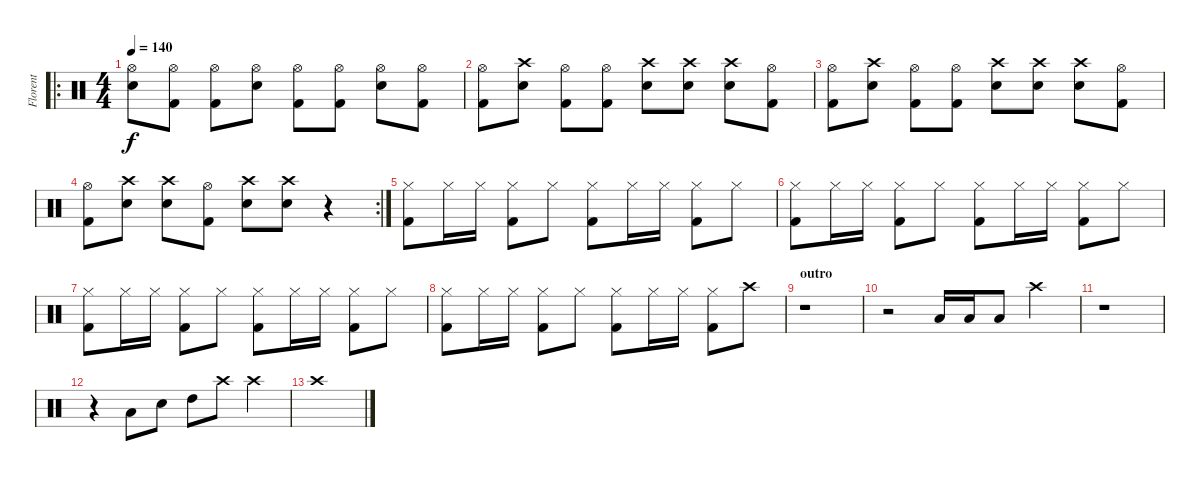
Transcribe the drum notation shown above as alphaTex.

\track ("Florent" "Florent") {instrument percussion}
\staff {score}
\articulation defaults
\ro
\ts (4 4)
\tempo 140
\clef neutral
\ks c
("Hi-Hat (open)" "Snare (hit) 2").8{dy f} ("Hi-Hat (open)" "Kick (hit) 2").8 ("Hi-Hat (open)" "Kick (hit) 2").8 ("Hi-Hat (open)" "Snare (hit) 2").8 ("Hi-Hat (open)" "Kick (hit) 2").8 ("Hi-Hat (open)" "Kick (hit) 2").8 ("Hi-Hat (open)" "Snare (hit) 2").8 ("Hi-Hat (open)" "Kick (hit) 2").8 |
("Hi-Hat (open)" "Kick (hit) 2").8 ("Crash high (hit)" "Snare (hit) 2").8 ("Hi-Hat (open)" "Kick (hit) 2").8 ("Hi-Hat (open)" "Kick (hit) 2").8 ("Crash high (hit)" "Snare (hit) 2").8 ("Crash high (hit)" "Snare (hit) 2").8 ("Crash high (hit)" "Snare (hit) 2").8 ("Hi-Hat (open)" "Kick (hit) 2").8 |
("Hi-Hat (open)" "Kick (hit) 2").8 ("Crash high (hit)" "Snare (hit) 2").8 ("Hi-Hat (open)" "Kick (hit) 2").8 ("Hi-Hat (open)" "Kick (hit) 2").8 ("Crash high (hit)" "Snare (hit) 2").8 ("Crash high (hit)" "Snare (hit) 2").8 ("Crash high (hit)" "Snare (hit) 2").8 ("Hi-Hat (open)" "Kick (hit) 2").8 |
\rc 2
("Hi-Hat (open)" "Kick (hit) 2").8 ("Crash high (hit)" "Snare (hit) 2").8 ("Crash high (hit)" "Snare (hit) 2").8 ("Hi-Hat (open)" "Kick (hit) 2").8 ("Crash high (hit)" "Snare (hit) 2").8 ("Crash high (hit)" "Snare (hit) 2").8 r.4 |
("Hi-Hat (closed)" "Kick (hit) 2").8 "Hi-Hat (closed)".16 "Hi-Hat (closed)".16 ("Hi-Hat (closed)" "Kick (hit) 2").8 "Hi-Hat (closed)".8 ("Hi-Hat (closed)" "Kick (hit) 2").8 "Hi-Hat (closed)".16 "Hi-Hat (closed)".16 ("Hi-Hat (closed)" "Kick (hit) 2").8 "Hi-Hat (closed)".8 |
("Hi-Hat (closed)" "Kick (hit) 2").8 "Hi-Hat (closed)".16 "Hi-Hat (closed)".16 ("Hi-Hat (closed)" "Kick (hit) 2").8 "Hi-Hat (closed)".8 ("Hi-Hat (closed)" "Kick (hit) 2").8 "Hi-Hat (closed)".16 "Hi-Hat (closed)".16 ("Hi-Hat (closed)" "Kick (hit) 2").8 "Hi-Hat (closed)".8 |
("Hi-Hat (closed)" "Kick (hit) 2").8 "Hi-Hat (closed)".16 "Hi-Hat (closed)".16 ("Hi-Hat (closed)" "Kick (hit) 2").8 "Hi-Hat (closed)".8 ("Hi-Hat (closed)" "Kick (hit) 2").8 "Hi-Hat (closed)".16 "Hi-Hat (closed)".16 ("Hi-Hat (closed)" "Kick (hit) 2").8 "Hi-Hat (closed)".8 |
("Hi-Hat (closed)" "Kick (hit) 2").8 "Hi-Hat (closed)".16 "Hi-Hat (closed)".16 ("Hi-Hat (closed)" "Kick (hit) 2").8 "Hi-Hat (closed)".8 ("Hi-Hat (closed)" "Kick (hit) 2").8 "Hi-Hat (closed)".16 "Hi-Hat (closed)".16 ("Hi-Hat (closed)" "Kick (hit) 2").8 "Crash high (hit)".8 |
\section ("" "outro")
r.1 |
r.2 "Low Tom (hit)".16 "Low Tom (hit)".16 "Low Tom (hit)".8 "Crash high (hit)".4 |
r.1 |
r.4 "Low Tom (hit)".8 "Snare (hit) 2".8 "High Tom (hit)".8 "Crash high (hit)".8 "Crash high (hit)".4 |
"Crash high (hit)".1
